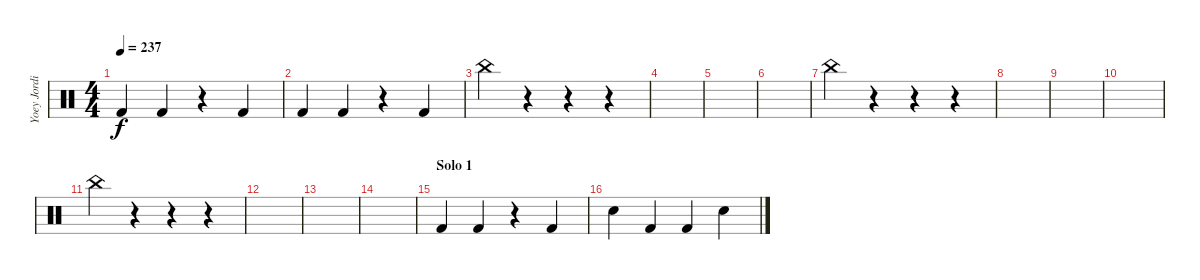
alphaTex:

\track ("Yoey Jordison" "Yoey Jordi") {instrument percussion}
\staff {score}
\articulation defaults
\ts (4 4)
\tempo 237
\clef neutral
\ks c "Kick (hit) 2".4{dy f} "Kick (hit) 2".4
r.4 "Kick (hit) 2".4 |
"Kick (hit) 2".4 "Kick (hit) 2".4 r.4 "Kick (hit) 2".4 |
"China (hit)".4 r.4 r.4 r.4 |
|
|
|
"China (hit)".4 r.4 r.4 r.4 |
|
|
|
"China (hit)".4 r.4 r.4 r.4 |
|
|
|
\section ("" "Solo 1")
"Kick (hit) 2".4 "Kick (hit) 2".4 r.4 "Kick (hit) 2".4 |
"Electric Snare (hit)".4 "Kick (hit) 2".4 "Kick (hit) 2".4 "Electric Snare (hit)".4
